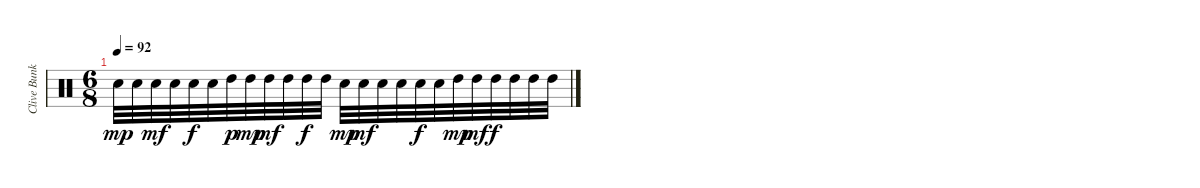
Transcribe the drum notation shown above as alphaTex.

\track ("Clive Bunker (Drums)" "Clive Bunk") {instrument percussion}
\staff {score}
\articulation defaults
\ts (6 8)
\tempo 92
\clef neutral
\ks c "Electric Snare (hit)".32{dy mp} "Electric Snare (hit)".32 "Electric Snare (hit)".32{dy mf} "Electric Snare (hit)".32 "Electric Snare (hit)".32{dy f} "Electric Snare (hit)".32 "High Tom (hit)".32{dy p} "High Tom (hit)".32{dy mp} "High Tom (hit)".32{dy mf} "High Tom (hit)".32 "High Tom (hit)".32{dy f} "High Tom (hit)".32 "Electric Snare (hit)".32{dy mp} "Electric Snare (hit)".32{dy mf} "Electric Snare (hit)".32 "Electric Snare (hit)".32 "Electric Snare (hit)".32{dy f} "Electric Snare (hit)".32 "High Tom (hit)".32{dy mp} "High Tom (hit)".32{dy mf} "High Tom (hit)".32{dy f} "High Tom (hit)".32 "High Tom (hit)".32 "High Tom (hit)".32
